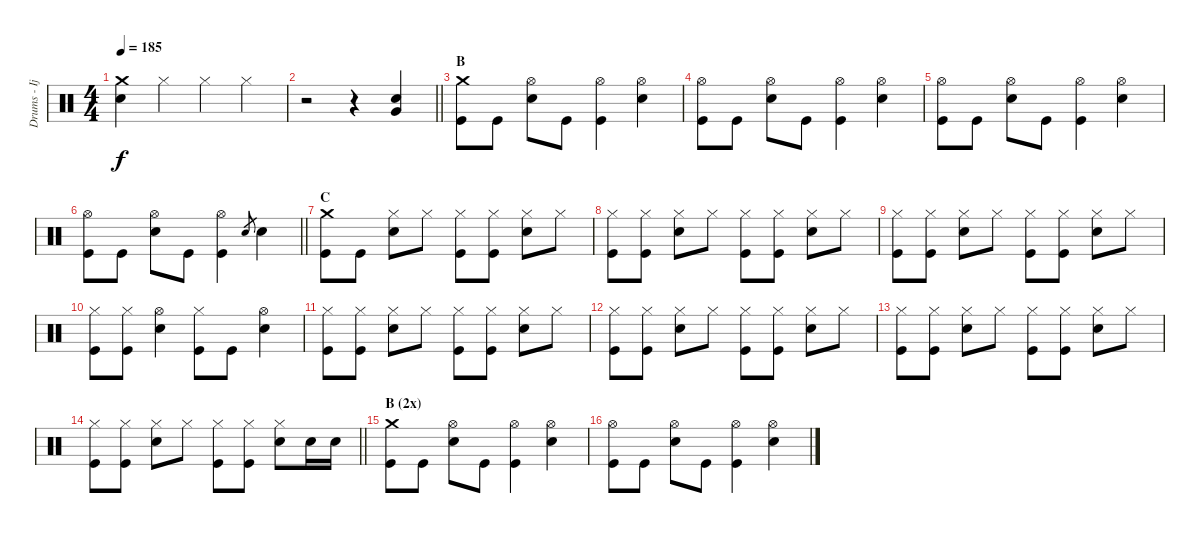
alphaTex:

\track ("Drums - Ijichi" "Drums - Ij") {instrument percussion}
\staff {score}
\articulation defaults
\ts (4 4)
\tempo 185
\clef neutral
\ks c
("Crash medium (hit)" "Electric Snare (hit)").4{dy f} "Hi-Hat (closed)".4 "Hi-Hat (closed)".4 "Hi-Hat (closed)".4 |
\barLineRight lightlight
r.2 r.4 ("Electric Snare (hit)" "Very Low Tom (hit)").4 |
\section ("" "B")
("Crash medium (hit)" "Kick (hit)").8 "Kick (hit)".8 ("Hi-Hat (open)" "Electric Snare (hit)").8 "Kick (hit)".8 ("Hi-Hat (open)" "Kick (hit)").4 ("Hi-Hat (open)" "Electric Snare (hit)").4 |
("Hi-Hat (open)" "Kick (hit)").8 "Kick (hit)".8 ("Hi-Hat (open)" "Electric Snare (hit)").8 "Kick (hit)".8 ("Hi-Hat (open)" "Kick (hit)").4 ("Hi-Hat (open)" "Electric Snare (hit)").4 |
("Hi-Hat (open)" "Kick (hit)").8 "Kick (hit)".8 ("Hi-Hat (open)" "Electric Snare (hit)").8 "Kick (hit)".8 ("Hi-Hat (open)" "Kick (hit)").4 ("Hi-Hat (open)" "Electric Snare (hit)").4 |
\barLineRight lightlight
("Hi-Hat (open)" "Kick (hit)").8 "Kick (hit)".8 ("Hi-Hat (open)" "Electric Snare (hit)").8 "Kick (hit)".8 ("Hi-Hat (open)" "Kick (hit)").4 "Electric Snare (hit)".8{gr} "Electric Snare (hit)".4 |
\section ("" "C")
("Crash medium (hit)" "Kick (hit)").8 "Kick (hit)".8 ("Hi-Hat (closed)" "Electric Snare (hit)").8 "Hi-Hat (closed)".8 ("Hi-Hat (closed)" "Kick (hit)").8 ("Hi-Hat (closed)" "Kick (hit)").8 ("Hi-Hat (closed)" "Electric Snare (hit)").8 "Hi-Hat (closed)".8 |
("Hi-Hat (closed)" "Kick (hit)").8 ("Hi-Hat (closed)" "Kick (hit)").8 ("Hi-Hat (closed)" "Electric Snare (hit)").8 "Hi-Hat (closed)".8 ("Hi-Hat (closed)" "Kick (hit)").8 ("Hi-Hat (closed)" "Kick (hit)").8 ("Hi-Hat (closed)" "Electric Snare (hit)").8 "Hi-Hat (closed)".8 |
("Hi-Hat (closed)" "Kick (hit)").8 ("Hi-Hat (closed)" "Kick (hit)").8 ("Hi-Hat (closed)" "Electric Snare (hit)").8 "Hi-Hat (closed)".8 ("Hi-Hat (closed)" "Kick (hit)").8 ("Hi-Hat (closed)" "Kick (hit)").8 ("Hi-Hat (closed)" "Electric Snare (hit)").8 "Hi-Hat (closed)".8 |
("Hi-Hat (closed)" "Kick (hit)").8 ("Hi-Hat (closed)" "Kick (hit)").8 ("Hi-Hat (open)" "Electric Snare (hit)").4 ("Hi-Hat (closed)" "Kick (hit)").8 "Kick (hit)".8 ("Hi-Hat (open)" "Electric Snare (hit)").4 |
("Hi-Hat (closed)" "Kick (hit)").8 ("Hi-Hat (closed)" "Kick (hit)").8 ("Hi-Hat (closed)" "Electric Snare (hit)").8 "Hi-Hat (closed)".8 ("Hi-Hat (closed)" "Kick (hit)").8 ("Hi-Hat (closed)" "Kick (hit)").8 ("Hi-Hat (closed)" "Electric Snare (hit)").8 "Hi-Hat (closed)".8 |
("Hi-Hat (closed)" "Kick (hit)").8 ("Hi-Hat (closed)" "Kick (hit)").8 ("Hi-Hat (closed)" "Electric Snare (hit)").8 "Hi-Hat (closed)".8 ("Hi-Hat (closed)" "Kick (hit)").8 ("Hi-Hat (closed)" "Kick (hit)").8 ("Hi-Hat (closed)" "Electric Snare (hit)").8 "Hi-Hat (closed)".8 |
("Hi-Hat (closed)" "Kick (hit)").8 ("Hi-Hat (closed)" "Kick (hit)").8 ("Hi-Hat (closed)" "Electric Snare (hit)").8 "Hi-Hat (closed)".8 ("Hi-Hat (closed)" "Kick (hit)").8 ("Hi-Hat (closed)" "Kick (hit)").8 ("Hi-Hat (closed)" "Electric Snare (hit)").8 "Hi-Hat (closed)".8 |
\barLineRight lightlight
("Hi-Hat (closed)" "Kick (hit)").8 ("Hi-Hat (closed)" "Kick (hit)").8 ("Hi-Hat (closed)" "Electric Snare (hit)").8 "Hi-Hat (closed)".8 ("Hi-Hat (closed)" "Kick (hit)").8 ("Hi-Hat (closed)" "Kick (hit)").8 ("Hi-Hat (closed)" "Electric Snare (hit)").8 "Electric Snare (hit)".16 "Electric Snare (hit)".16 |
\section ("" "B (2x)")
("Crash medium (hit)" "Kick (hit)").8 "Kick (hit)".8 ("Hi-Hat (open)" "Electric Snare (hit)").8 "Kick (hit)".8 ("Hi-Hat (open)" "Kick (hit)").4 ("Hi-Hat (open)" "Electric Snare (hit)").4 |
("Hi-Hat (open)" "Kick (hit)").8 "Kick (hit)".8 ("Hi-Hat (open)" "Electric Snare (hit)").8 "Kick (hit)".8 ("Hi-Hat (open)" "Kick (hit)").4 ("Hi-Hat (open)" "Electric Snare (hit)").4
